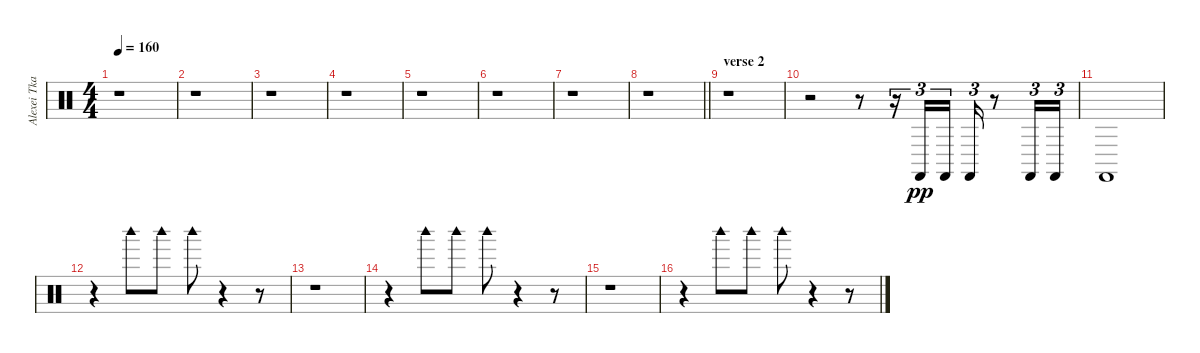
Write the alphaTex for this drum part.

\track ("Alexei Tkachevskiy " "Alexei Tka") {instrument percussion}
\staff {score}
\articulation defaults
\ts (4 4)
\tempo 160
\clef neutral
\ks c
r.1{dy pp} |
r.1 |
r.1 |
r.1 |
r.1 |
r.1 |
r.1 |
\barLineRight lightlight
r.1 |
\section ("" "verse 2")
r.1 |
r.2 r.8 r.16{tu (3 2)} "Castanets (hit)".16{tu (3 2)} "Castanets (hit)".16{tu (3 2)} "Castanets (hit)".16{tu (3 2)} r.8 "Castanets (hit)".16{tu (3 2)} "Castanets (hit)".16{tu (3 2)} |
"Castanets (hit)".1 |
r.4 "Woodblock high (hit)".8 "Woodblock high (hit)".8 "Woodblock high (hit)".8 r.4 r.8 |
r.1 |
r.4 "Woodblock high (hit)".8 "Woodblock high (hit)".8 "Woodblock high (hit)".8 r.4 r.8 |
r.1 |
r.4 "Woodblock high (hit)".8 "Woodblock high (hit)".8 "Woodblock high (hit)".8 r.4 r.8
